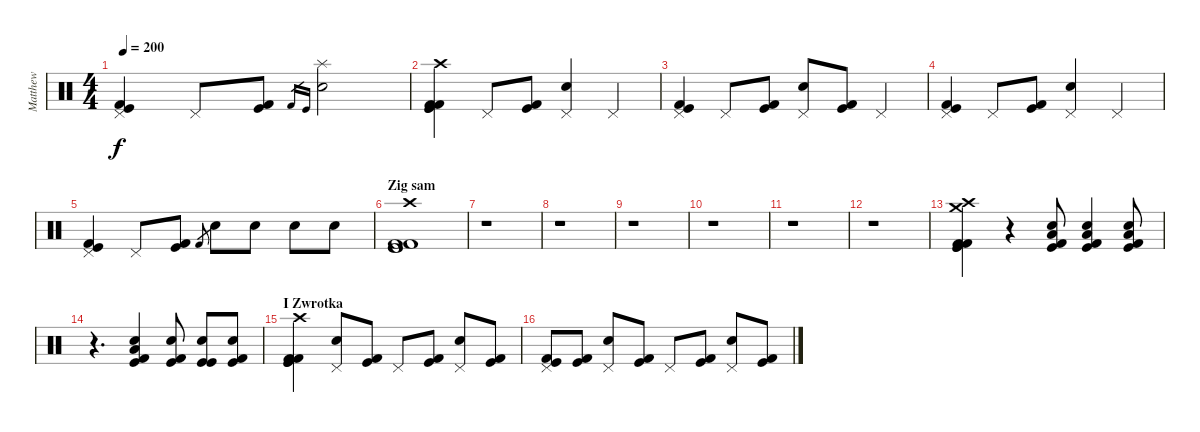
\track ("Matthew" "Matthew") {instrument percussion}
\staff {score}
\articulation defaults
\ts (4 4)
\tempo 200
\clef neutral
\ks c
("Kick (hit) 2" "Kick (hit)" "Pedal Hi-Hat (hit)").4{dy f} "Pedal Hi-Hat (hit)".8 ("Kick (hit) 2" "Kick (hit)").8 "Kick (hit) 2".16{gr} "Kick (hit)".16{gr} ("Snare (hit) 2" "Splash (hit)").2 |
("Kick (hit) 2" "Kick (hit)" "Kick (hit) 2" "Kick (hit)" "Crash high (hit)").4 "Pedal Hi-Hat (hit)".8 ("Kick (hit) 2" "Kick (hit)").8 ("Pedal Hi-Hat (hit)" "Snare (hit) 2").4 "Pedal Hi-Hat (hit)".4 |
("Kick (hit) 2" "Kick (hit)" "Pedal Hi-Hat (hit)").4 "Pedal Hi-Hat (hit)".8 ("Kick (hit) 2" "Kick (hit)").8 ("Pedal Hi-Hat (hit)" "Snare (hit) 2").8 ("Kick (hit) 2" "Kick (hit)").8 "Pedal Hi-Hat (hit)".4 |
("Kick (hit) 2" "Kick (hit)" "Pedal Hi-Hat (hit)").4 "Pedal Hi-Hat (hit)".8 ("Kick (hit) 2" "Kick (hit)").8 ("Pedal Hi-Hat (hit)" "Snare (hit) 2").4 "Pedal Hi-Hat (hit)".4 |
("Kick (hit) 2" "Kick (hit)" "Pedal Hi-Hat (hit)").4 "Pedal Hi-Hat (hit)".8 ("Kick (hit) 2" "Kick (hit)").8 "Kick (hit) 2".8{gr} "Snare (hit) 2".8 "Snare (hit) 2".8 "Snare (hit) 2".8 "Snare (hit) 2".8 |
\section ("" "Zig sam")
("Kick (hit) 2" "Kick (hit)" "Kick (hit) 2" "Kick (hit)" "Crash high (hit)").1 |
r.1 |
r.1 |
r.1 |
r.1 |
r.1 |
r.1 |
("Kick (hit) 2" "Kick (hit)" "Kick (hit) 2" "Kick (hit)" "Crash high (hit)" "Crash medium (hit)").4 r.4 ("Kick (hit)" "Kick (hit) 2" "Snare (hit) 2" "Low Tom (hit)").8 ("Kick (hit)" "Kick (hit) 2" "Snare (hit) 2" "Low Tom (hit)").4 ("Kick (hit) 2" "Kick (hit)" "Snare (hit) 2" "Low Tom (hit)").8 |
r.4{d} ("Kick (hit) 2" "Kick (hit)" "Snare (hit) 2" "Low Tom (hit)").4 ("Kick (hit)" "Kick (hit) 2" "Snare (hit) 2").8 ("Kick (hit)" "Kick (hit)" "Snare (hit) 2").8 ("Kick (hit)" "Kick (hit) 2" "Snare (hit) 2").8 |
\section ("" "I Zwrotka")
("Kick (hit) 2" "Kick (hit)" "Kick (hit)" "Kick (hit) 2" "Crash high (hit)").4 ("Pedal Hi-Hat (hit)" "Snare (hit) 2").8 ("Kick (hit)" "Kick (hit) 2").8 "Pedal Hi-Hat (hit)".8 ("Kick (hit)" "Kick (hit) 2").8 ("Snare (hit) 2" "Pedal Hi-Hat (hit)").8 ("Kick (hit)" "Kick (hit) 2").8 |
("Kick (hit) 2" "Kick (hit)" "Pedal Hi-Hat (hit)").8 ("Kick (hit) 2" "Kick (hit)").8 ("Snare (hit) 2" "Pedal Hi-Hat (hit)").8 ("Kick (hit) 2" "Kick (hit)").8 "Pedal Hi-Hat (hit)".8 ("Kick (hit) 2" "Kick (hit)").8 ("Pedal Hi-Hat (hit)" "Snare (hit) 2").8 ("Kick (hit) 2" "Kick (hit)").8
